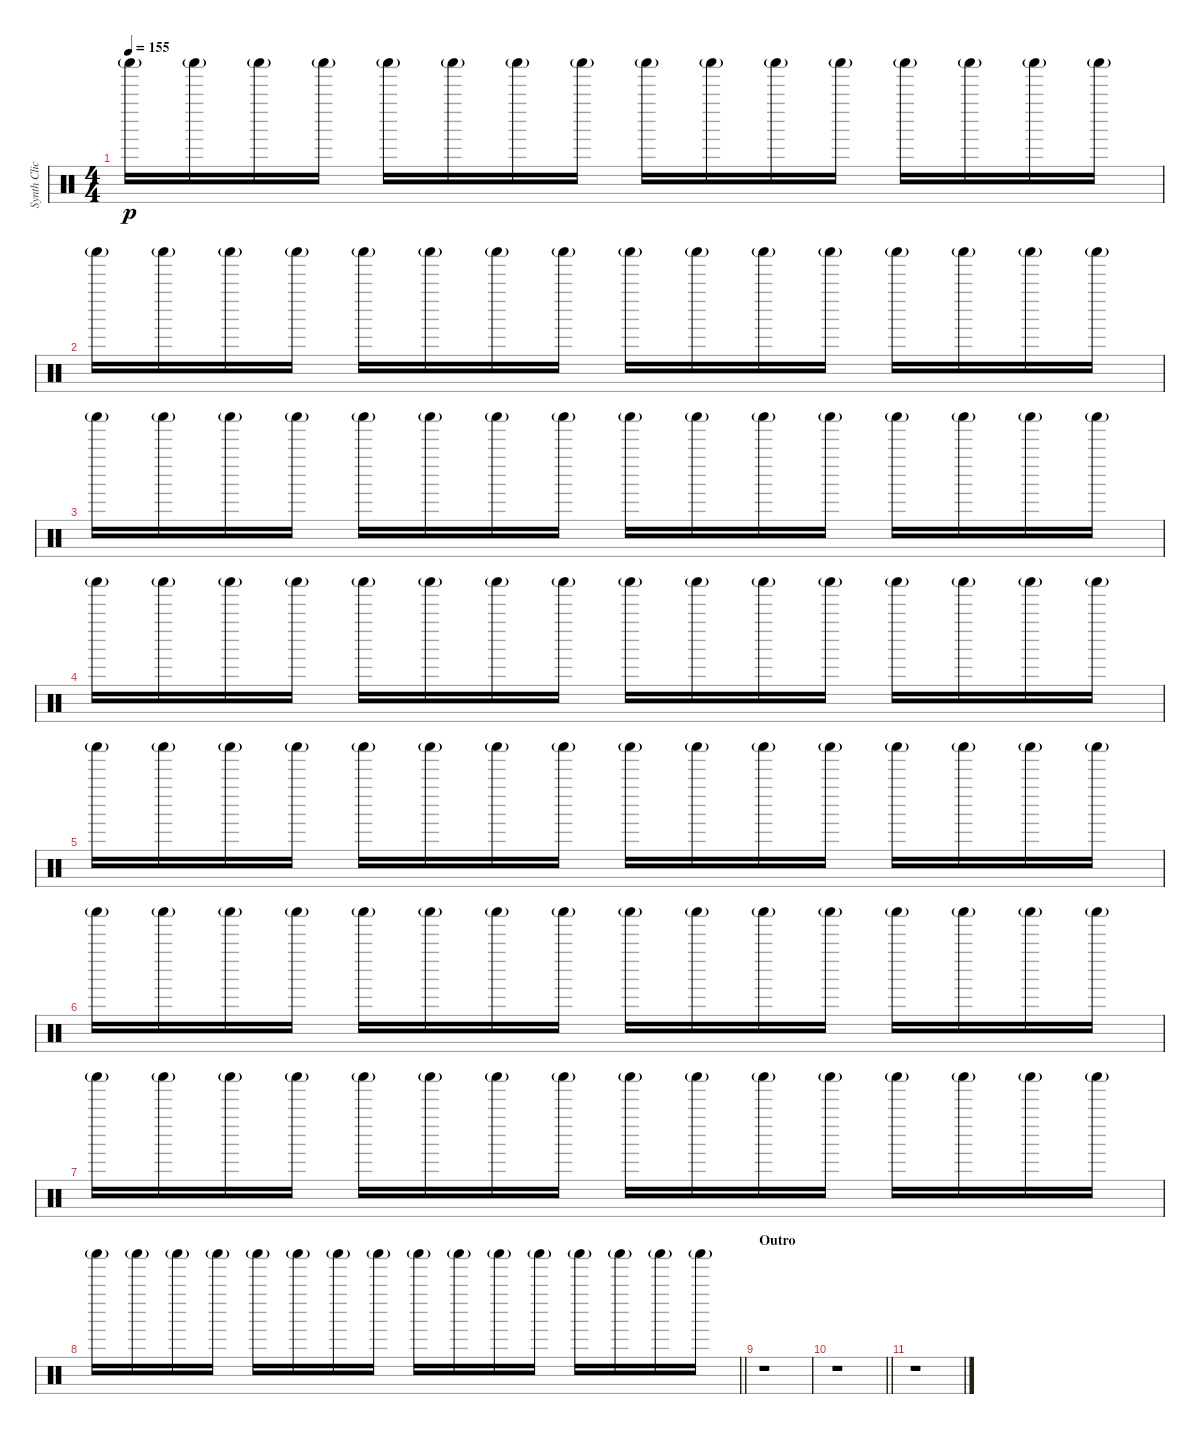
\track ("Synth Click" "Synth Clic") {instrument percussion}
\staff {score}
\articulation defaults
\ts (4 4)
\tempo 155
\clef neutral
\ks c "Shaker (hit)"{g}.16{dy p} "Shaker (hit)"{g}.16 "Shaker (hit)"{g}.16 "Shaker (hit)"{g}.16 "Shaker (hit)"{g}.16 "Shaker (hit)"{g}.16 "Shaker (hit)"{g}.16 "Shaker (hit)"{g}.16 "Shaker (hit)"{g}.16 "Shaker (hit)"{g}.16 "Shaker (hit)"{g}.16 "Shaker (hit)"{g}.16 "Shaker (hit)"{g}.16 "Shaker (hit)"{g}.16 "Shaker (hit)"{g}.16 "Shaker (hit)"{g}.16
|
"Shaker (hit)"{g}.16 "Shaker (hit)"{g}.16 "Shaker (hit)"{g}.16 "Shaker (hit)"{g}.16 "Shaker (hit)"{g}.16 "Shaker (hit)"{g}.16 "Shaker (hit)"{g}.16 "Shaker (hit)"{g}.16 "Shaker (hit)"{g}.16 "Shaker (hit)"{g}.16 "Shaker (hit)"{g}.16 "Shaker (hit)"{g}.16 "Shaker (hit)"{g}.16 "Shaker (hit)"{g}.16 "Shaker (hit)"{g}.16 "Shaker (hit)"{g}.16 |
"Shaker (hit)"{g}.16 "Shaker (hit)"{g}.16 "Shaker (hit)"{g}.16 "Shaker (hit)"{g}.16 "Shaker (hit)"{g}.16 "Shaker (hit)"{g}.16 "Shaker (hit)"{g}.16 "Shaker (hit)"{g}.16 "Shaker (hit)"{g}.16 "Shaker (hit)"{g}.16 "Shaker (hit)"{g}.16 "Shaker (hit)"{g}.16 "Shaker (hit)"{g}.16 "Shaker (hit)"{g}.16 "Shaker (hit)"{g}.16 "Shaker (hit)"{g}.16 |
"Shaker (hit)"{g}.16 "Shaker (hit)"{g}.16 "Shaker (hit)"{g}.16 "Shaker (hit)"{g}.16 "Shaker (hit)"{g}.16 "Shaker (hit)"{g}.16 "Shaker (hit)"{g}.16 "Shaker (hit)"{g}.16 "Shaker (hit)"{g}.16 "Shaker (hit)"{g}.16 "Shaker (hit)"{g}.16 "Shaker (hit)"{g}.16 "Shaker (hit)"{g}.16 "Shaker (hit)"{g}.16 "Shaker (hit)"{g}.16 "Shaker (hit)"{g}.16 |
"Shaker (hit)"{g}.16 "Shaker (hit)"{g}.16 "Shaker (hit)"{g}.16 "Shaker (hit)"{g}.16 "Shaker (hit)"{g}.16 "Shaker (hit)"{g}.16 "Shaker (hit)"{g}.16 "Shaker (hit)"{g}.16 "Shaker (hit)"{g}.16 "Shaker (hit)"{g}.16 "Shaker (hit)"{g}.16 "Shaker (hit)"{g}.16 "Shaker (hit)"{g}.16 "Shaker (hit)"{g}.16 "Shaker (hit)"{g}.16 "Shaker (hit)"{g}.16 |
"Shaker (hit)"{g}.16 "Shaker (hit)"{g}.16 "Shaker (hit)"{g}.16 "Shaker (hit)"{g}.16 "Shaker (hit)"{g}.16 "Shaker (hit)"{g}.16 "Shaker (hit)"{g}.16 "Shaker (hit)"{g}.16 "Shaker (hit)"{g}.16 "Shaker (hit)"{g}.16 "Shaker (hit)"{g}.16 "Shaker (hit)"{g}.16 "Shaker (hit)"{g}.16 "Shaker (hit)"{g}.16 "Shaker (hit)"{g}.16 "Shaker (hit)"{g}.16 |
"Shaker (hit)"{g}.16 "Shaker (hit)"{g}.16 "Shaker (hit)"{g}.16 "Shaker (hit)"{g}.16 "Shaker (hit)"{g}.16 "Shaker (hit)"{g}.16 "Shaker (hit)"{g}.16 "Shaker (hit)"{g}.16 "Shaker (hit)"{g}.16 "Shaker (hit)"{g}.16 "Shaker (hit)"{g}.16 "Shaker (hit)"{g}.16 "Shaker (hit)"{g}.16 "Shaker (hit)"{g}.16 "Shaker (hit)"{g}.16 "Shaker (hit)"{g}.16 |
\barLineRight lightlight "Shaker (hit)"{g}.16 "Shaker (hit)"{g}.16 "Shaker (hit)"{g}.16 "Shaker (hit)"{g}.16 "Shaker (hit)"{g}.16 "Shaker (hit)"{g}.16 "Shaker (hit)"{g}.16 "Shaker (hit)"{g}.16 "Shaker (hit)"{g}.16 "Shaker (hit)"{g}.16 "Shaker (hit)"{g}.16 "Shaker (hit)"{g}.16 "Shaker (hit)"{g}.16 "Shaker (hit)"{g}.16 "Shaker (hit)"{g}.16 "Shaker (hit)"{g}.16
|
\section ("" "Outro")
r.1 |
\barLineRight lightlight
r.1 |
r.1
